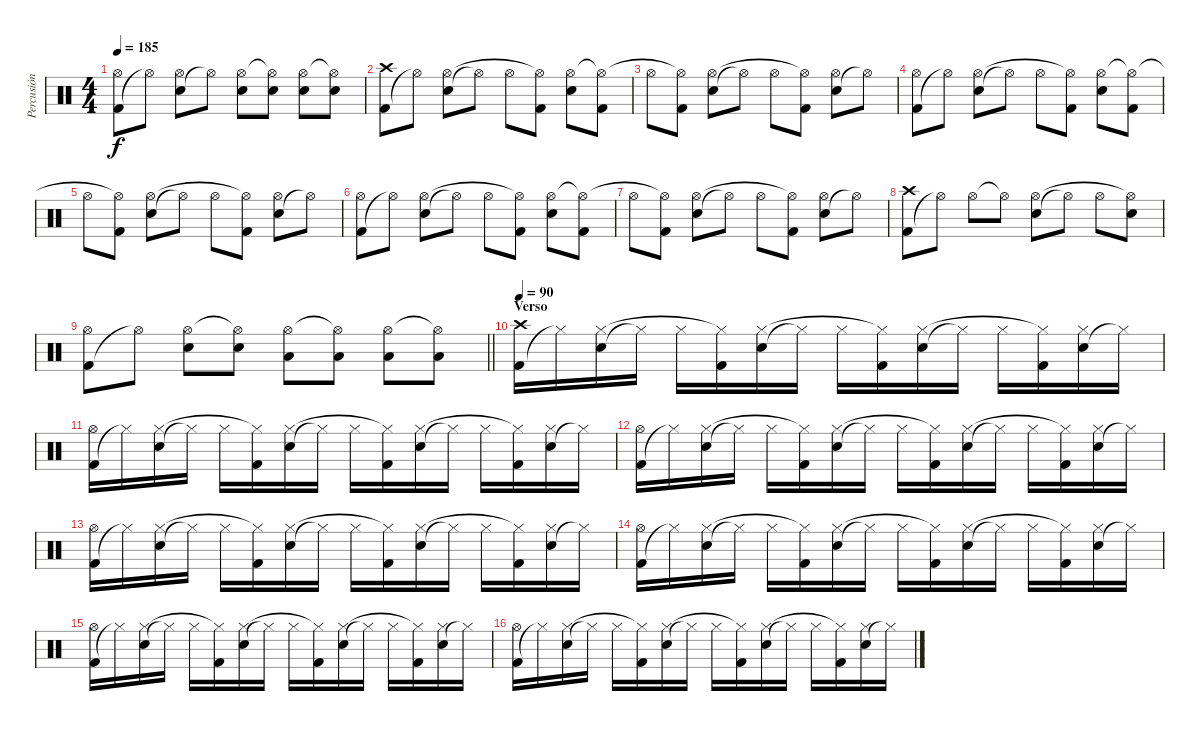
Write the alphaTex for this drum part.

\track ("Percusión" "Percusión") {instrument percussion}
\staff {score}
\articulation defaults
\ts (4 4)
\tempo 185
\clef neutral
\ks c
("Kick (hit) 2" "Hi-Hat (open)").8{dy f} "Hi-Hat (open)"{t}.8 ("Snare (hit) 2" "Hi-Hat (open)").8 "Hi-Hat (open)"{t}.8 ("Snare (hit) 2" "Hi-Hat (open)").8 ("Snare (hit) 2" "Hi-Hat (open)"{t}).8 ("Snare (hit) 2" "Hi-Hat (open)").8 ("Snare (hit) 2" "Hi-Hat (open)"{t}).8 |
("Kick (hit) 2" "Crash high (hit)").8 "Hi-Hat (open)"{t}.8 ("Snare (hit) 2" "Hi-Hat (open)").8 "Hi-Hat (open)"{t}.8 "Hi-Hat (open)".8 ("Kick (hit) 2" "Hi-Hat (open)"{t}).8 ("Snare (hit) 2" "Hi-Hat (open)").8 ("Kick (hit) 2" "Hi-Hat (open)"{t}).8 |
"Hi-Hat (open)".8 ("Kick (hit) 2" "Hi-Hat (open)"{t}).8 ("Snare (hit) 2" "Hi-Hat (open)").8 "Hi-Hat (open)"{t}.8 "Hi-Hat (open)".8 ("Kick (hit) 2" "Hi-Hat (open)"{t}).8 ("Snare (hit) 2" "Hi-Hat (open)").8 "Hi-Hat (open)"{t}.8 |
("Kick (hit) 2" "Hi-Hat (open)").8 "Hi-Hat (open)"{t}.8 ("Snare (hit) 2" "Hi-Hat (open)").8 "Hi-Hat (open)"{t}.8 "Hi-Hat (open)".8 ("Kick (hit) 2" "Hi-Hat (open)"{t}).8 ("Snare (hit) 2" "Hi-Hat (open)").8 ("Kick (hit) 2" "Hi-Hat (open)"{t}).8 |
"Hi-Hat (open)".8 ("Kick (hit) 2" "Hi-Hat (open)"{t}).8 ("Snare (hit) 2" "Hi-Hat (open)").8 "Hi-Hat (open)"{t}.8 "Hi-Hat (open)".8 ("Kick (hit) 2" "Hi-Hat (open)"{t}).8 ("Snare (hit) 2" "Hi-Hat (open)").8 "Hi-Hat (open)"{t}.8 |
("Kick (hit) 2" "Hi-Hat (open)").8 "Hi-Hat (open)"{t}.8 ("Snare (hit) 2" "Hi-Hat (open)").8 "Hi-Hat (open)"{t}.8 "Hi-Hat (open)".8 ("Kick (hit) 2" "Hi-Hat (open)"{t}).8 ("Snare (hit) 2" "Hi-Hat (open)").8 ("Kick (hit) 2" "Hi-Hat (open)"{t}).8 |
"Hi-Hat (open)".8 ("Kick (hit) 2" "Hi-Hat (open)"{t}).8 ("Snare (hit) 2" "Hi-Hat (open)").8 "Hi-Hat (open)"{t}.8 "Hi-Hat (open)".8 ("Kick (hit) 2" "Hi-Hat (open)"{t}).8 ("Snare (hit) 2" "Hi-Hat (open)").8 "Hi-Hat (open)"{t}.8 |
("Kick (hit) 2" "Crash high (hit)").8 "Hi-Hat (open)"{t}.8 "Hi-Hat (open)".8 "Hi-Hat (open)"{t}.8 ("Snare (hit) 2" "Hi-Hat (open)").8 "Hi-Hat (open)"{t}.8 "Hi-Hat (open)".8 ("Snare (hit) 2" "Hi-Hat (open)"{t}).8 |
\barLineRight lightlight
("Kick (hit) 2" "Hi-Hat (open)").8 "Hi-Hat (open)"{t}.8 ("Snare (hit) 2" "Hi-Hat (open)").8 ("Snare (hit) 2" "Hi-Hat (open)"{t}).8 ("Low Tom (hit)" "Hi-Hat (open)").8 ("Low Tom (hit)" "Hi-Hat (open)"{t}).8 ("Low Floor Tom (hit)" "Hi-Hat (open)").8 ("Low Floor Tom (hit)" "Hi-Hat (open)"{t}).8 |
\section ("" "Verso")
\tempo 90
("Kick (hit) 2" "Crash high (hit)").16 "Hi-Hat (closed)"{t}.16 ("Snare (hit) 2" "Hi-Hat (closed)").16 "Hi-Hat (closed)"{t}.16 "Hi-Hat (closed)".16 ("Kick (hit) 2" "Hi-Hat (closed)"{t}).16 ("Snare (hit) 2" "Hi-Hat (closed)").16 "Hi-Hat (closed)"{t}.16 "Hi-Hat (closed)".16 ("Kick (hit) 2" "Hi-Hat (closed)"{t}).16 ("Snare (hit) 2" "Hi-Hat (closed)").16 "Hi-Hat (closed)"{t}.16 "Hi-Hat (closed)".16 ("Kick (hit) 2" "Hi-Hat (closed)"{t}).16 ("Snare (hit) 2" "Hi-Hat (closed)").16 "Hi-Hat (closed)"{t}.16 |
("Kick (hit) 2" "Hi-Hat (open)").16 "Hi-Hat (closed)"{t}.16 ("Snare (hit) 2" "Hi-Hat (closed)").16 "Hi-Hat (closed)"{t}.16 "Hi-Hat (closed)".16 ("Kick (hit) 2" "Hi-Hat (closed)"{t}).16 ("Snare (hit) 2" "Hi-Hat (closed)").16 "Hi-Hat (closed)"{t}.16 "Hi-Hat (closed)".16 ("Kick (hit) 2" "Hi-Hat (closed)"{t}).16 ("Snare (hit) 2" "Hi-Hat (closed)").16 "Hi-Hat (closed)"{t}.16 "Hi-Hat (closed)".16 ("Kick (hit) 2" "Hi-Hat (closed)"{t}).16 ("Snare (hit) 2" "Hi-Hat (closed)").16 "Hi-Hat (closed)"{t}.16 |
("Kick (hit) 2" "Hi-Hat (open)").16 "Hi-Hat (closed)"{t}.16 ("Snare (hit) 2" "Hi-Hat (closed)").16 "Hi-Hat (closed)"{t}.16 "Hi-Hat (closed)".16 ("Kick (hit) 2" "Hi-Hat (closed)"{t}).16 ("Snare (hit) 2" "Hi-Hat (closed)").16 "Hi-Hat (closed)"{t}.16 "Hi-Hat (closed)".16 ("Kick (hit) 2" "Hi-Hat (closed)"{t}).16 ("Snare (hit) 2" "Hi-Hat (closed)").16 "Hi-Hat (closed)"{t}.16 "Hi-Hat (closed)".16 ("Kick (hit) 2" "Hi-Hat (closed)"{t}).16 ("Snare (hit) 2" "Hi-Hat (closed)").16 "Hi-Hat (closed)"{t}.16 |
("Kick (hit) 2" "Hi-Hat (open)").16 "Hi-Hat (closed)"{t}.16 ("Snare (hit) 2" "Hi-Hat (closed)").16 "Hi-Hat (closed)"{t}.16 "Hi-Hat (closed)".16 ("Kick (hit) 2" "Hi-Hat (closed)"{t}).16 ("Snare (hit) 2" "Hi-Hat (closed)").16 "Hi-Hat (closed)"{t}.16 "Hi-Hat (closed)".16 ("Kick (hit) 2" "Hi-Hat (closed)"{t}).16 ("Snare (hit) 2" "Hi-Hat (closed)").16 "Hi-Hat (closed)"{t}.16 "Hi-Hat (closed)".16 ("Kick (hit) 2" "Hi-Hat (closed)"{t}).16 ("Snare (hit) 2" "Hi-Hat (closed)").16 "Hi-Hat (closed)"{t}.16 |
("Kick (hit) 2" "Hi-Hat (open)").16 "Hi-Hat (closed)"{t}.16 ("Snare (hit) 2" "Hi-Hat (closed)").16 "Hi-Hat (closed)"{t}.16 "Hi-Hat (closed)".16 ("Kick (hit) 2" "Hi-Hat (closed)"{t}).16 ("Snare (hit) 2" "Hi-Hat (closed)").16 "Hi-Hat (closed)"{t}.16 "Hi-Hat (closed)".16 ("Kick (hit) 2" "Hi-Hat (closed)"{t}).16 ("Snare (hit) 2" "Hi-Hat (closed)").16 "Hi-Hat (closed)"{t}.16 "Hi-Hat (closed)".16 ("Kick (hit) 2" "Hi-Hat (closed)"{t}).16 ("Snare (hit) 2" "Hi-Hat (closed)").16 "Hi-Hat (closed)"{t}.16 |
("Kick (hit) 2" "Hi-Hat (open)").16 "Hi-Hat (closed)"{t}.16 ("Snare (hit) 2" "Hi-Hat (closed)").16 "Hi-Hat (closed)"{t}.16 "Hi-Hat (closed)".16 ("Kick (hit) 2" "Hi-Hat (closed)"{t}).16 ("Snare (hit) 2" "Hi-Hat (closed)").16 "Hi-Hat (closed)"{t}.16 "Hi-Hat (closed)".16 ("Kick (hit) 2" "Hi-Hat (closed)"{t}).16 ("Snare (hit) 2" "Hi-Hat (closed)").16 "Hi-Hat (closed)"{t}.16 "Hi-Hat (closed)".16 ("Kick (hit) 2" "Hi-Hat (closed)"{t}).16 ("Snare (hit) 2" "Hi-Hat (closed)").16 "Hi-Hat (closed)"{t}.16 |
("Kick (hit) 2" "Hi-Hat (open)").16 "Hi-Hat (closed)"{t}.16 ("Snare (hit) 2" "Hi-Hat (closed)").16 "Hi-Hat (closed)"{t}.16 "Hi-Hat (closed)".16 ("Kick (hit) 2" "Hi-Hat (closed)"{t}).16 ("Snare (hit) 2" "Hi-Hat (closed)").16 "Hi-Hat (closed)"{t}.16 "Hi-Hat (closed)".16 ("Kick (hit) 2" "Hi-Hat (closed)"{t}).16 ("Snare (hit) 2" "Hi-Hat (closed)").16 "Hi-Hat (closed)"{t}.16 "Hi-Hat (closed)".16 ("Kick (hit) 2" "Hi-Hat (closed)"{t}).16 ("Snare (hit) 2" "Hi-Hat (closed)").16 "Hi-Hat (closed)"{t}.16
